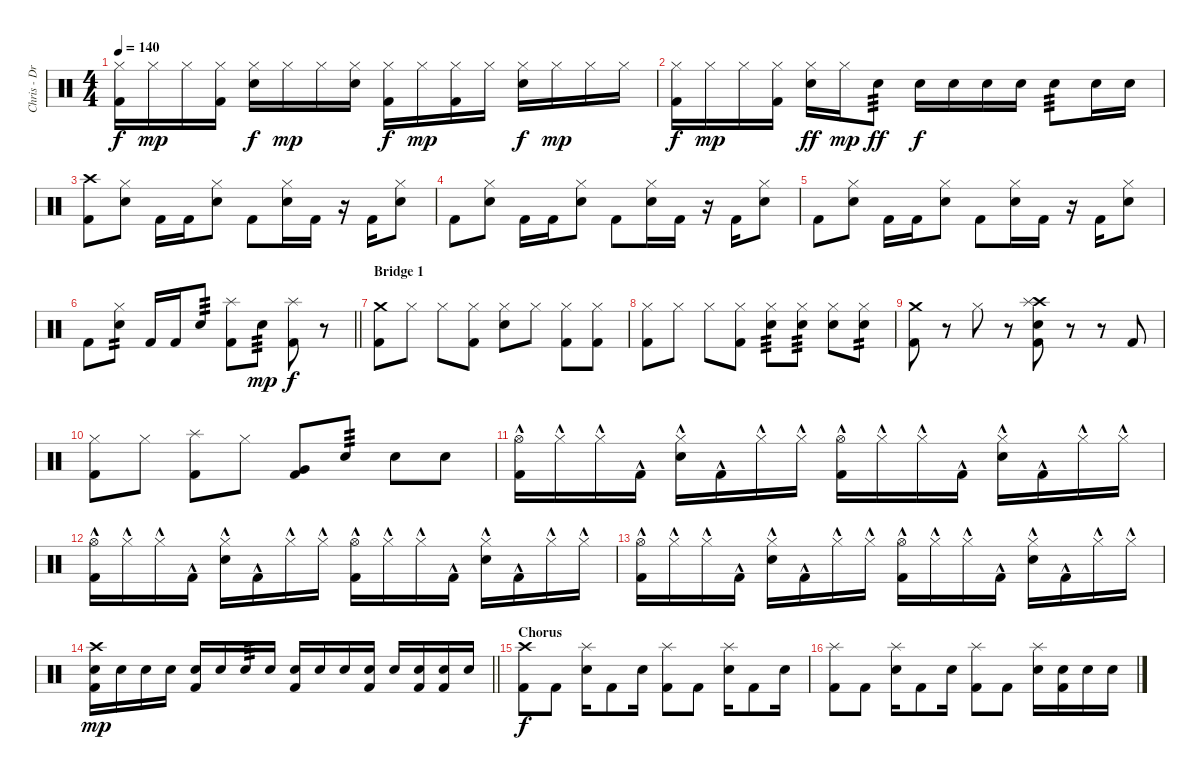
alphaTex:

\track ("Chris - Drums" "Chris - Dr") {instrument percussion}
\staff {score}
\articulation defaults
\ts (4 4)
\tempo 140
\clef neutral
\ks c
("Hi-Hat (closed)" "Kick (hit) 2").16{dy f} "Hi-Hat (closed)".16{dy mp} "Hi-Hat (closed)".16 ("Hi-Hat (closed)" "Kick (hit) 2").16 ("Hi-Hat (closed)" "Electric Snare (hit)").16{dy f} "Hi-Hat (closed)".16{dy mp} "Hi-Hat (closed)".16 ("Hi-Hat (closed)" "Electric Snare (hit)").16 ("Hi-Hat (closed)" "Kick (hit) 2").16{dy f} "Hi-Hat (closed)".16{dy mp} ("Hi-Hat (closed)" "Kick (hit) 2").16 "Hi-Hat (closed)".16 ("Hi-Hat (closed)" "Electric Snare (hit)").16{dy f} "Hi-Hat (closed)".16{dy mp} "Hi-Hat (closed)".16 "Hi-Hat (closed)".16 |
("Hi-Hat (closed)" "Kick (hit) 2").16{dy f} "Hi-Hat (closed)".16{dy mp} "Hi-Hat (closed)".16 ("Hi-Hat (closed)" "Kick (hit) 2").16 ("Hi-Hat (closed)" "Electric Snare (hit)").16{dy ff} "Hi-Hat (closed)".16{dy mp} "Electric Snare (hit)".8{tp 3 dy ff} "Electric Snare (hit)".16{dy f} "Electric Snare (hit)".16 "Electric Snare (hit)".16 "Electric Snare (hit)".16 "Electric Snare (hit)".8{tp 3} "Electric Snare (hit)".16 "Electric Snare (hit)".16 |
("Crash high (hit)" "Kick (hit) 2").8 ("Hi-Hat (closed)" "Electric Snare (hit)").8 "Kick (hit) 2".16 "Kick (hit) 2".16 ("Hi-Hat (closed)" "Electric Snare (hit)").8 "Kick (hit) 2".8 ("Hi-Hat (closed)" "Electric Snare (hit)").16 "Kick (hit) 2".16 r.16 "Kick (hit) 2".16 ("Hi-Hat (closed)" "Electric Snare (hit)").8 |
"Kick (hit) 2".8 ("Hi-Hat (closed)" "Electric Snare (hit)").8 "Kick (hit) 2".16 "Kick (hit) 2".16 ("Hi-Hat (closed)" "Electric Snare (hit)").8 "Kick (hit) 2".8 ("Hi-Hat (closed)" "Electric Snare (hit)").16 "Kick (hit) 2".16 r.16 "Kick (hit) 2".16 ("Hi-Hat (closed)" "Electric Snare (hit)").8 |
"Kick (hit) 2".8 ("Hi-Hat (closed)" "Electric Snare (hit)").8 "Kick (hit) 2".16 "Kick (hit) 2".16 ("Hi-Hat (closed)" "Electric Snare (hit)").8 "Kick (hit) 2".8 ("Hi-Hat (closed)" "Electric Snare (hit)").16 "Kick (hit) 2".16 r.16 "Kick (hit) 2".16 ("Hi-Hat (closed)" "Electric Snare (hit)").8 |
\barLineRight lightlight "Kick (hit) 2".8
("Hi-Hat (closed)" "Electric Snare (hit)").8{tp 2} "Kick (hit) 2".16 "Kick (hit) 2".16 "Electric Snare (hit)".8{tp 3} ("Splash (hit)" "Kick (hit) 2").8 "Electric Snare (hit)".8{tp 3 dy mp} ("Splash (hit)" "Kick (hit) 2").8{dy f volume 16} r.8{volume 0} |
\section ("" "Bridge 1")
("Crash medium (hit)" "Kick (hit) 2").8{volume 16} "Hi-Hat (closed)".8 "Hi-Hat (closed)".8 ("Hi-Hat (closed)" "Kick (hit) 2").8 ("Hi-Hat (closed)" "Electric Snare (hit)").8 "Hi-Hat (closed)".8 ("Hi-Hat (closed)" "Kick (hit) 2").8 ("Hi-Hat (closed)" "Kick (hit) 2").8 |
("Hi-Hat (closed)" "Kick (hit) 2").8 "Hi-Hat (closed)".8 "Hi-Hat (closed)".8 ("Hi-Hat (closed)" "Kick (hit) 2").8 ("Hi-Hat (closed)" "Electric Snare (hit)").8{tp 3} ("Hi-Hat (closed)" "Electric Snare (hit)").8{tp 3} ("Hi-Hat (closed)" "Electric Snare (hit)").8 ("Hi-Hat (closed)" "Electric Snare (hit)").8{tp 2} |
("Crash medium (hit)" "Kick (hit) 2").8{volume 16} r.8 "Hi-Hat (closed)".8 r.8 ("Crash high (hit)" "Splash (hit)" "Electric Snare (hit)" "Kick (hit) 2").8 r.8 r.8 "Kick (hit) 2".8 |
("Hi-Hat (closed)" "Kick (hit) 2").8 "Hi-Hat (closed)".8 ("Splash (hit)" "Kick (hit) 2").8 "Hi-Hat (closed)".8 ("Very Low Tom (hit)" "Kick (hit) 2").8 "Electric Snare (hit)".8{tp 3} "Electric Snare (hit)".8 "Electric Snare (hit)".8 |
("Hi-Hat (open)"{hac} "Kick (hit) 2"{hac}).16 "Hi-Hat (closed)"{hac}.16 "Hi-Hat (closed)"{hac}.16 "Kick (hit) 2"{hac}.16 ("Hi-Hat (closed)"{hac} "Electric Snare (hit)"{hac}).16 "Kick (hit) 2"{hac}.16 "Hi-Hat (closed)"{hac}.16 "Hi-Hat (closed)"{hac}.16 ("Hi-Hat (open)"{hac} "Kick (hit) 2"{hac}).16 "Hi-Hat (closed)"{hac}.16 "Hi-Hat (closed)"{hac}.16 "Kick (hit) 2"{hac}.16 ("Hi-Hat (closed)"{hac} "Electric Snare (hit)"{hac}).16 "Kick (hit) 2"{hac}.16 "Hi-Hat (closed)"{hac}.16 "Hi-Hat (closed)"{hac}.16 |
("Hi-Hat (open)"{hac} "Kick (hit) 2"{hac}).16 "Hi-Hat (closed)"{hac}.16 "Hi-Hat (closed)"{hac}.16 "Kick (hit) 2"{hac}.16 ("Hi-Hat (closed)"{hac} "Electric Snare (hit)"{hac}).16 "Kick (hit) 2"{hac}.16 "Hi-Hat (closed)"{hac}.16 "Hi-Hat (closed)"{hac}.16 ("Hi-Hat (open)"{hac} "Kick (hit) 2"{hac}).16 "Hi-Hat (closed)"{hac}.16 "Hi-Hat (closed)"{hac}.16 "Kick (hit) 2"{hac}.16 ("Hi-Hat (closed)"{hac} "Electric Snare (hit)"{hac}).16 "Kick (hit) 2"{hac}.16 "Hi-Hat (closed)"{hac}.16 "Hi-Hat (closed)"{hac}.16 |
("Hi-Hat (open)"{hac} "Kick (hit) 2"{hac}).16 "Hi-Hat (closed)"{hac}.16 "Hi-Hat (closed)"{hac}.16 "Kick (hit) 2"{hac}.16 ("Hi-Hat (closed)"{hac} "Electric Snare (hit)"{hac}).16 "Kick (hit) 2"{hac}.16 "Hi-Hat (closed)"{hac}.16 "Hi-Hat (closed)"{hac}.16 ("Hi-Hat (open)"{hac} "Kick (hit) 2"{hac}).16 "Hi-Hat (closed)"{hac}.16 "Hi-Hat (closed)"{hac}.16 "Kick (hit) 2"{hac}.16 ("Hi-Hat (closed)"{hac} "Electric Snare (hit)"{hac}).16 "Kick (hit) 2"{hac}.16 "Hi-Hat (closed)"{hac}.16 "Hi-Hat (closed)"{hac}.16 |
\barLineRight lightlight
("Crash high (hit)" "Electric Snare (hit)" "Kick (hit) 2").16{dy mp} "Electric Snare (hit)".16 "Electric Snare (hit)".16 "Electric Snare (hit)".16 ("Electric Snare (hit)" "Kick (hit) 2").16 "Electric Snare (hit)".16 "Electric Snare (hit)".16{tp 3} "Electric Snare (hit)".16 ("Electric Snare (hit)" "Kick (hit) 2").16 "Electric Snare (hit)".16 "Electric Snare (hit)".16 ("Electric Snare (hit)" "Kick (hit) 2").16 "Electric Snare (hit)".16 ("Electric Snare (hit)" "Kick (hit) 2").16 ("Electric Snare (hit)" "Kick (hit) 2").16 "Electric Snare (hit)".16 |
\section ("" "Chorus")
("Crash high (hit)" "Kick (hit) 2").8{dy f} "Kick (hit) 2".8 ("Splash (hit)" "Electric Snare (hit)").16 "Kick (hit) 2".8 "Electric Snare (hit)".16 ("Splash (hit)" "Kick (hit) 2").8 "Kick (hit) 2".8 ("Splash (hit)" "Electric Snare (hit)").16 "Kick (hit) 2".8 "Electric Snare (hit)".16 |
("Splash (hit)" "Kick (hit) 2").8 "Kick (hit) 2".8 ("Splash (hit)" "Electric Snare (hit)").16 "Kick (hit) 2".8 "Electric Snare (hit)".16 ("Splash (hit)" "Kick (hit) 2").8 "Kick (hit) 2".8 ("Splash (hit)" "Electric Snare (hit)").16 ("Electric Snare (hit)" "Kick (hit) 2").16 "Electric Snare (hit)".16 "Electric Snare (hit)".16
